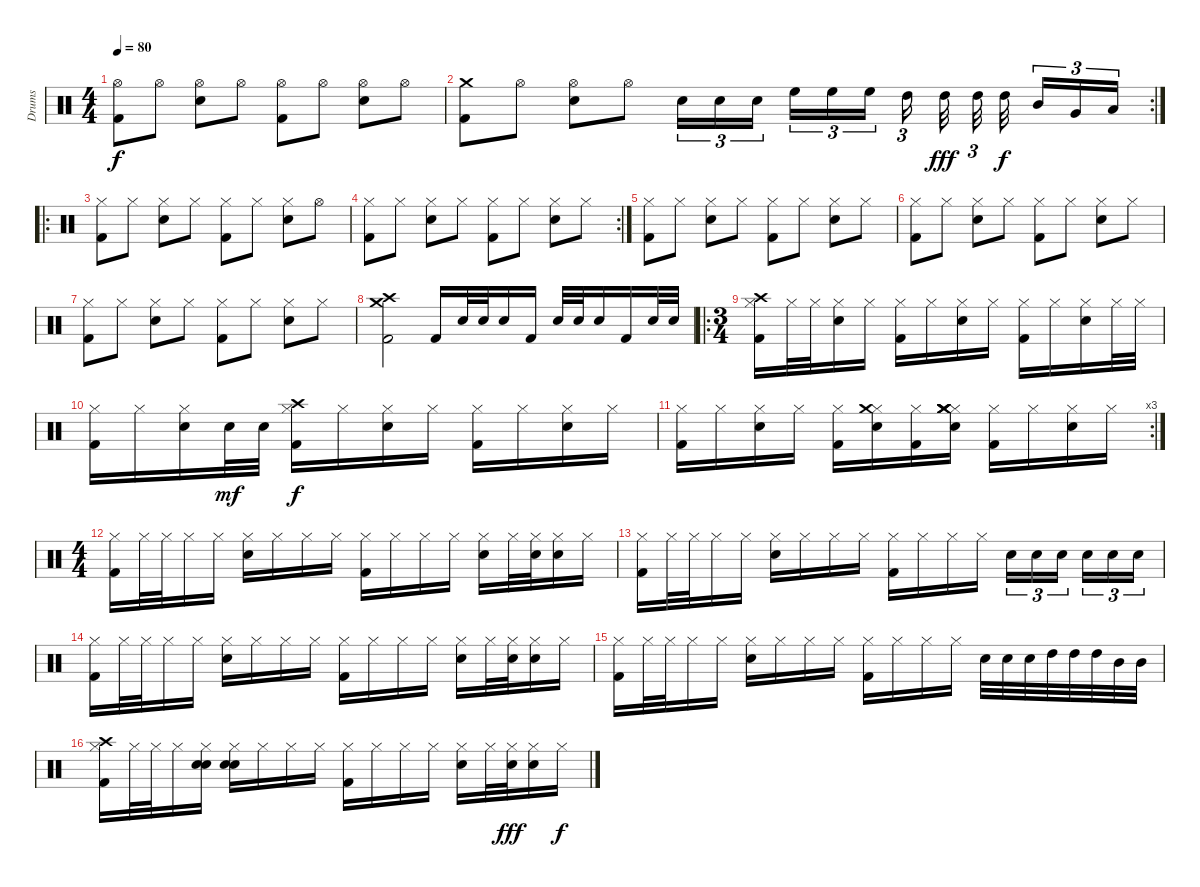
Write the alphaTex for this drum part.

\track ("Drums" "Drums") {instrument percussion}
\staff {score}
\articulation defaults
\ts (4 4)
\tempo 80
\clef neutral
\ks c
("Hi-Hat (open)" "Kick (hit) 2").8{dy f} "Hi-Hat (open)".8 ("Hi-Hat (open)" "Snare (hit) 2").8 "Hi-Hat (open)".8 ("Hi-Hat (open)" "Kick (hit) 2").8 "Hi-Hat (open)".8 ("Hi-Hat (open)" "Snare (hit) 2").8 "Hi-Hat (open)".8 |
\rc 2
("Crash medium (hit)" "Kick (hit) 2").8 "Hi-Hat (open)".8 ("Hi-Hat (open)" "Snare (hit) 2").8 "Hi-Hat (open)".8 "Snare (hit) 2".16{tu (3 2)} "Snare (hit) 2".16{tu (3 2)} "Snare (hit) 2".16{tu (3 2)} "High Floor Tom (hit)".16{tu (3 2)} "High Floor Tom (hit)".16{tu (3 2)} "High Floor Tom (hit)".16{tu (3 2)} "High Tom (hit)".16{tu (3 2)} "High Tom (hit)".32{dy fff} "High Tom (hit)".32{tu (3 2)} "High Tom (hit)".32{dy f} "Mid Tom (hit)".16{tu (3 2)} "Very Low Tom (hit)".16{tu (3 2)} "Low Tom (hit)".16{tu (3 2)} |
\ro
("Hi-Hat (closed)" "Kick (hit) 2").8 "Hi-Hat (closed)".8 ("Hi-Hat (closed)" "Snare (hit) 2").8 "Hi-Hat (closed)".8 ("Hi-Hat (closed)" "Kick (hit) 2").8 "Hi-Hat (closed)".8 ("Hi-Hat (closed)" "Snare (hit) 2").8 "Hi-Hat (open)".8 |
\rc 2
("Hi-Hat (closed)" "Kick (hit) 2").8 "Hi-Hat (closed)".8 ("Hi-Hat (closed)" "Snare (hit) 2").8 "Hi-Hat (closed)".8 ("Hi-Hat (closed)" "Kick (hit) 2").8 "Hi-Hat (closed)".8 ("Hi-Hat (closed)" "Snare (hit) 2").8 "Hi-Hat (closed)".8 |
("Hi-Hat (closed)" "Kick (hit) 2").8 "Hi-Hat (closed)".8 ("Hi-Hat (closed)" "Snare (hit) 2").8 "Hi-Hat (closed)".8 ("Hi-Hat (closed)" "Kick (hit) 2").8 "Hi-Hat (closed)".8 ("Hi-Hat (closed)" "Snare (hit) 2").8 "Hi-Hat (closed)".8 |
("Hi-Hat (closed)" "Kick (hit) 2").8 "Hi-Hat (closed)".8 ("Hi-Hat (closed)" "Snare (hit) 2").8 "Hi-Hat (closed)".8 ("Hi-Hat (closed)" "Kick (hit) 2").8 "Hi-Hat (closed)".8 ("Hi-Hat (closed)" "Snare (hit) 2").8 "Hi-Hat (closed)".8 |
("Hi-Hat (closed)" "Kick (hit) 2").8 "Hi-Hat (closed)".8 ("Hi-Hat (closed)" "Snare (hit) 2").8 "Hi-Hat (closed)".8 ("Hi-Hat (closed)" "Kick (hit) 2").8 "Hi-Hat (closed)".8 ("Hi-Hat (closed)" "Snare (hit) 2").8 "Hi-Hat (closed)".8 |
("Crash medium (hit)" "Crash high (hit)" "Kick (hit) 2").2 "Kick (hit) 2".16 "Snare (hit) 2".32 "Snare (hit) 2".32 "Snare (hit) 2".16 "Kick (hit) 2".16 "Snare (hit) 2".32 "Snare (hit) 2".32 "Snare (hit) 2".16 "Kick (hit) 2".16 "Snare (hit) 2".32 "Snare (hit) 2".32 |
\ro
\ts (3 4)
("Hi-Hat (closed)" "Kick (hit) 2" "Crash high (hit)").16 "Hi-Hat (closed)".32 "Hi-Hat (closed)".32 ("Hi-Hat (closed)" "Snare (hit) 2").16 "Hi-Hat (closed)".16 ("Hi-Hat (closed)" "Kick (hit) 2").16 "Hi-Hat (closed)".16 ("Hi-Hat (closed)" "Snare (hit) 2").16 "Hi-Hat (closed)".16 ("Hi-Hat (closed)" "Kick (hit) 2").16 "Hi-Hat (closed)".16 ("Hi-Hat (closed)" "Snare (hit) 2").16 "Hi-Hat (closed)".32 "Hi-Hat (closed)".32 |
("Hi-Hat (closed)" "Kick (hit) 2").16 "Hi-Hat (closed)".16 ("Hi-Hat (closed)" "Snare (hit) 2").16 "Snare (hit) 2".32{dy mf} "Snare (hit) 2".32 ("Hi-Hat (closed)" "Kick (hit) 2" "Crash high (hit)").16{dy f} "Hi-Hat (closed)".16 ("Hi-Hat (closed)" "Snare (hit) 2").16 "Hi-Hat (closed)".16 ("Hi-Hat (closed)" "Kick (hit) 2").16 "Hi-Hat (closed)".16 ("Hi-Hat (closed)" "Snare (hit) 2").16 "Hi-Hat (closed)".16 |
\rc 3
("Hi-Hat (closed)" "Kick (hit) 2").16 "Hi-Hat (closed)".16 ("Hi-Hat (closed)" "Snare (hit) 2").16 "Hi-Hat (closed)".16 ("Hi-Hat (closed)" "Kick (hit) 2").16 ("Hi-Hat (closed)" "Snare (hit) 2" "Crash medium (hit)").16 ("Hi-Hat (closed)" "Kick (hit) 2").16 ("Hi-Hat (closed)" "Snare (hit) 2" "Crash medium (hit)" "Crash medium (hit)" "Crash medium (hit)").16 ("Hi-Hat (closed)" "Kick (hit) 2").16 "Hi-Hat (closed)".16 ("Hi-Hat (closed)" "Snare (hit) 2").16 "Hi-Hat (closed)".16 |
\ts (4 4)
("Hi-Hat (closed)" "Kick (hit) 2").16 "Hi-Hat (closed)".32 "Hi-Hat (closed)".32 "Hi-Hat (closed)".16 "Hi-Hat (closed)".16 ("Hi-Hat (closed)" "Snare (hit) 2").16 "Hi-Hat (closed)".16 "Hi-Hat (closed)".16 "Hi-Hat (closed)".16 ("Hi-Hat (closed)" "Kick (hit) 2").16 "Hi-Hat (closed)".16 "Hi-Hat (closed)".16 "Hi-Hat (closed)".16 ("Hi-Hat (closed)" "Snare (hit) 2").16 "Hi-Hat (closed)".32 ("Hi-Hat (closed)" "Snare (hit) 2").32 ("Hi-Hat (closed)" "Snare (hit) 2").16 "Hi-Hat (closed)".16 |
("Hi-Hat (closed)" "Kick (hit) 2").16 "Hi-Hat (closed)".32 "Hi-Hat (closed)".32 "Hi-Hat (closed)".16 "Hi-Hat (closed)".16 ("Hi-Hat (closed)" "Snare (hit) 2").16 "Hi-Hat (closed)".16 "Hi-Hat (closed)".16 "Hi-Hat (closed)".16 ("Hi-Hat (closed)" "Kick (hit) 2").16 "Hi-Hat (closed)".16 "Hi-Hat (closed)".16 "Hi-Hat (closed)".16 "Snare (hit) 2".16{tu (3 2)} "Snare (hit) 2".16{tu (3 2)} "Snare (hit) 2".16{tu (3 2)} "Snare (hit) 2".16{tu (3 2)} "Snare (hit) 2".16{tu (3 2)} "Snare (hit) 2".16{tu (3 2)} |
("Hi-Hat (closed)" "Kick (hit) 2").16 "Hi-Hat (closed)".32 "Hi-Hat (closed)".32 "Hi-Hat (closed)".16 "Hi-Hat (closed)".16 ("Hi-Hat (closed)" "Snare (hit) 2").16 "Hi-Hat (closed)".16 "Hi-Hat (closed)".16 "Hi-Hat (closed)".16 ("Hi-Hat (closed)" "Kick (hit) 2").16 "Hi-Hat (closed)".16 "Hi-Hat (closed)".16 "Hi-Hat (closed)".16 ("Hi-Hat (closed)" "Snare (hit) 2").16 "Hi-Hat (closed)".32 ("Hi-Hat (closed)" "Snare (hit) 2").32 ("Hi-Hat (closed)" "Snare (hit) 2").16 "Hi-Hat (closed)".16 |
("Hi-Hat (closed)" "Kick (hit) 2").16 "Hi-Hat (closed)".32 "Hi-Hat (closed)".32 "Hi-Hat (closed)".16 "Hi-Hat (closed)".16 ("Hi-Hat (closed)" "Snare (hit) 2").16 "Hi-Hat (closed)".16 "Hi-Hat (closed)".16 "Hi-Hat (closed)".16 ("Hi-Hat (closed)" "Kick (hit) 2").16 "Hi-Hat (closed)".16 "Hi-Hat (closed)".16 "Hi-Hat (closed)".16 "Snare (hit) 2".32 "Snare (hit) 2".32 "Snare (hit) 2".32 "High Tom (hit)".32 "High Tom (hit)".32 "High Tom (hit)".32 "Mid Tom (hit)".32 "Mid Tom (hit)".32 |
("Hi-Hat (closed)" "Kick (hit) 2" "Crash high (hit)").16 "Hi-Hat (closed)".32 "Hi-Hat (closed)".32 "Hi-Hat (closed)".16 ("Hi-Hat (closed)" "Snare (hit) 2" "Electric Snare (hit)").16 ("Hi-Hat (closed)" "Snare (hit) 2" "Electric Snare (hit)").16 "Hi-Hat (closed)".16 "Hi-Hat (closed)".16 "Hi-Hat (closed)".16 ("Hi-Hat (closed)" "Kick (hit) 2").16 "Hi-Hat (closed)".16 "Hi-Hat (closed)".16 "Hi-Hat (closed)".16 ("Hi-Hat (closed)" "Snare (hit) 2").16 "Hi-Hat (closed)".32 ("Hi-Hat (closed)" "Snare (hit) 2").32{dy fff} ("Hi-Hat (closed)" "Snare (hit) 2").16 "Hi-Hat (closed)".16{dy f}
